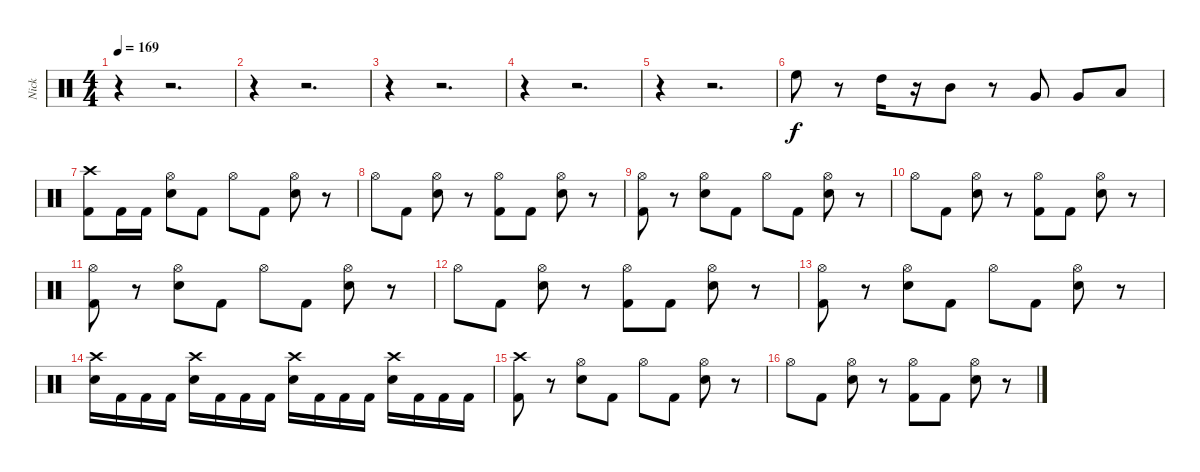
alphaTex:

\track ("Nick" "Nick") {instrument percussion}
\staff {score}
\articulation defaults
\ts (4 4)
\tempo 169
\clef neutral
\ks c
r.4{dy f} r.2{d} |
r.4 r.2{d} |
r.4 r.2{d} |
r.4 r.2{d} |
r.4 r.2{d} |
"High Floor Tom (hit)".8 r.8 "High Tom (hit)".16 r.16 "Mid Tom (hit)".8 r.8 "Very Low Tom (hit)".8 "Very Low Tom (hit)".8 "Low Floor Tom (hit)".8 |
("Crash high (hit)" "Kick (hit) 2").8 "Kick (hit) 2".16 "Kick (hit) 2".16 ("Hi-Hat (open)" "Snare (hit) 2").8 "Kick (hit) 2".8 "Hi-Hat (open)".8 "Kick (hit) 2".8 ("Hi-Hat (open)" "Snare (hit) 2").8 r.8 |
"Hi-Hat (open)".8 "Kick (hit) 2".8 ("Hi-Hat (open)" "Snare (hit) 2").8 r.8 ("Hi-Hat (open)" "Kick (hit) 2").8 "Kick (hit) 2".8 ("Hi-Hat (open)" "Snare (hit) 2").8 r.8 |
("Hi-Hat (open)" "Kick (hit) 2").8 r.8 ("Hi-Hat (open)" "Snare (hit) 2").8 "Kick (hit) 2".8 "Hi-Hat (open)".8 "Kick (hit) 2".8 ("Hi-Hat (open)" "Snare (hit) 2").8 r.8 |
"Hi-Hat (open)".8 "Kick (hit) 2".8 ("Hi-Hat (open)" "Snare (hit) 2").8 r.8 ("Hi-Hat (open)" "Kick (hit) 2").8 "Kick (hit) 2".8 ("Hi-Hat (open)" "Snare (hit) 2").8 r.8 |
("Hi-Hat (open)" "Kick (hit) 2").8 r.8 ("Hi-Hat (open)" "Snare (hit) 2").8 "Kick (hit) 2".8 "Hi-Hat (open)".8 "Kick (hit) 2".8 ("Hi-Hat (open)" "Snare (hit) 2").8 r.8 |
"Hi-Hat (open)".8 "Kick (hit) 2".8 ("Hi-Hat (open)" "Snare (hit) 2").8 r.8 ("Hi-Hat (open)" "Kick (hit) 2").8 "Kick (hit) 2".8 ("Hi-Hat (open)" "Snare (hit) 2").8 r.8 |
("Hi-Hat (open)" "Kick (hit) 2").8 r.8 ("Hi-Hat (open)" "Snare (hit) 2").8 "Kick (hit) 2".8 "Hi-Hat (open)".8 "Kick (hit) 2".8 ("Hi-Hat (open)" "Snare (hit) 2").8 r.8 |
("Crash high (hit)" "Snare (hit) 2").16 "Kick (hit) 2".16 "Kick (hit) 2".16 "Kick (hit) 2".16 ("Crash high (hit)" "Snare (hit) 2").16 "Kick (hit) 2".16 "Kick (hit) 2".16 "Kick (hit) 2".16 ("Crash high (hit)" "Snare (hit) 2").16 "Kick (hit) 2".16 "Kick (hit) 2".16 "Kick (hit) 2".16 ("Crash high (hit)" "Snare (hit) 2").16 "Kick (hit) 2".16 "Kick (hit) 2".16 "Kick (hit) 2".16 |
("Crash high (hit)" "Kick (hit) 2").8 r.8 ("Hi-Hat (open)" "Snare (hit) 2").8 "Kick (hit) 2".8 "Hi-Hat (open)".8 "Kick (hit) 2".8 ("Hi-Hat (open)" "Snare (hit) 2").8 r.8 |
"Hi-Hat (open)".8 "Kick (hit) 2".8 ("Hi-Hat (open)" "Snare (hit) 2").8 r.8 ("Hi-Hat (open)" "Kick (hit) 2").8 "Kick (hit) 2".8 ("Hi-Hat (open)" "Snare (hit) 2").8 r.8
